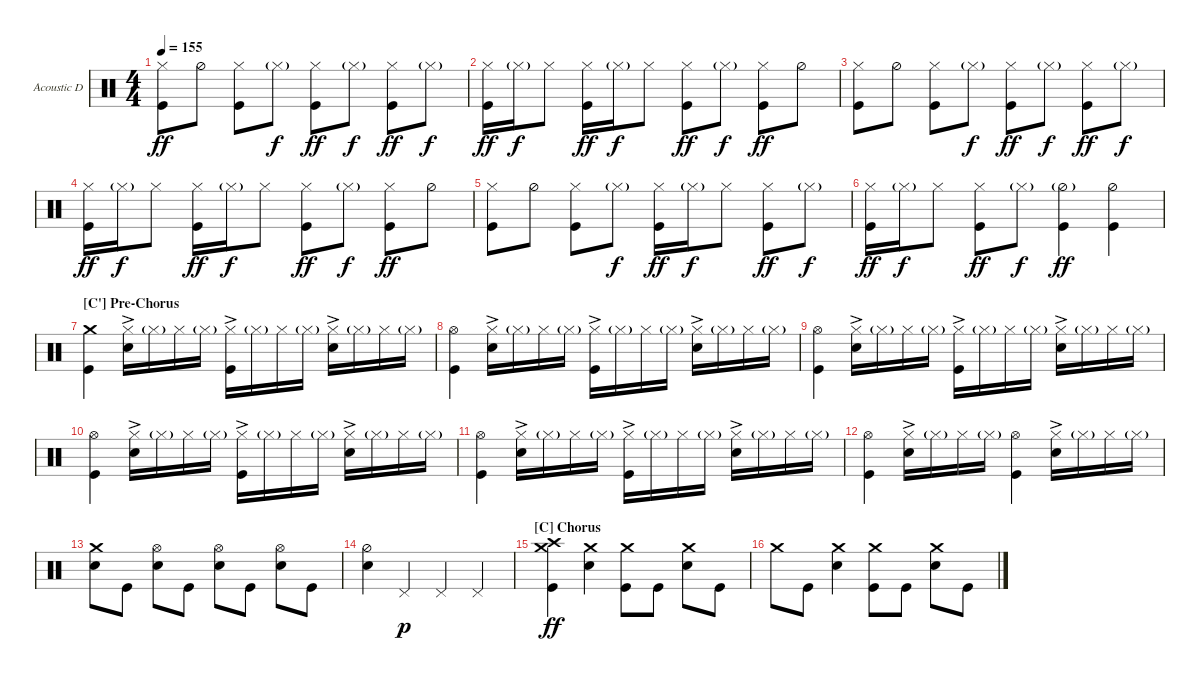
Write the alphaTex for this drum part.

\defaultSystemsLayout 4
\bracketExtendMode groupsimilarinstruments
\firstSystemTrackNameOrientation horizontal
\otherSystemsTrackNameOrientation horizontal
\track ("Acoustic Drums" "Acoustic D") {instrument percussion}
\staff {score}
\articulation defaults
\ts (4 4)
\tempo 155
\clef neutral
\ks c
("Kick (hit)" "Hi-Hat (closed)").8{dy ff} "Hi-Hat (half)".8 ("Kick (hit)" "Hi-Hat (closed)").8 "Hi-Hat (closed)"{g}.8{dy f} ("Kick (hit)" "Hi-Hat (closed)").8{dy ff} "Hi-Hat (closed)"{g}.8{dy f} ("Kick (hit)" "Hi-Hat (closed)").8{dy ff} "Hi-Hat (closed)"{g}.8{dy f} |
("Kick (hit)" "Hi-Hat (closed)").16{dy ff} "Hi-Hat (closed)"{g}.16{dy f} "Hi-Hat (closed)".8 ("Kick (hit)" "Hi-Hat (closed)").16{dy ff} "Hi-Hat (closed)"{g}.16{dy f} "Hi-Hat (closed)".8 ("Kick (hit)" "Hi-Hat (closed)").8{dy ff} "Hi-Hat (closed)"{g}.8{dy f} ("Kick (hit)" "Hi-Hat (closed)").8{dy ff} "Hi-Hat (half)".8 |
("Kick (hit)" "Hi-Hat (closed)").8 "Hi-Hat (half)".8 ("Kick (hit)" "Hi-Hat (closed)").8 "Hi-Hat (closed)"{g}.8{dy f} ("Kick (hit)" "Hi-Hat (closed)").8{dy ff} "Hi-Hat (closed)"{g}.8{dy f} ("Kick (hit)" "Hi-Hat (closed)").8{dy ff} "Hi-Hat (closed)"{g}.8{dy f} |
("Kick (hit)" "Hi-Hat (closed)").16{dy ff} "Hi-Hat (closed)"{g}.16{dy f} "Hi-Hat (closed)".8 ("Kick (hit)" "Hi-Hat (closed)").16{dy ff} "Hi-Hat (closed)"{g}.16{dy f} "Hi-Hat (closed)".8 ("Kick (hit)" "Hi-Hat (closed)").8{dy ff} "Hi-Hat (closed)"{g}.8{dy f} ("Kick (hit)" "Hi-Hat (closed)").8{dy ff} "Hi-Hat (half)".8 |
("Kick (hit)" "Hi-Hat (closed)").8 "Hi-Hat (half)".8 ("Kick (hit)" "Hi-Hat (closed)").8 "Hi-Hat (closed)"{g}.8{dy f} ("Kick (hit)" "Hi-Hat (closed)").16{dy ff} "Hi-Hat (closed)"{g}.16{dy f} "Hi-Hat (closed)".8 ("Kick (hit)" "Hi-Hat (closed)").8{dy ff} "Hi-Hat (closed)"{g}.8{dy f} |
("Kick (hit)" "Hi-Hat (closed)").16{dy ff} "Hi-Hat (closed)"{g}.16{dy f} "Hi-Hat (closed)".8 ("Kick (hit)" "Hi-Hat (closed)").8{dy ff} "Hi-Hat (closed)"{g}.8{dy f} ("Kick (hit)" "Hi-Hat (half)"{g}).4{dy ff} ("Kick (hit)" "Hi-Hat (half)").4 |
\section ("C'" "Pre-Chorus")
("Kick (hit)" "Crash medium (hit)").4 ("Snare (hit) 2" "Hi-Hat (closed)"{ac}).16 "Hi-Hat (closed)"{g}.16 "Hi-Hat (closed)".16 "Hi-Hat (closed)"{g}.16 ("Kick (hit)" "Hi-Hat (closed)"{ac}).16 "Hi-Hat (closed)"{g}.16 "Hi-Hat (closed)".16 "Hi-Hat (closed)"{g}.16 ("Snare (hit) 2" "Hi-Hat (closed)"{ac}).16 "Hi-Hat (closed)"{g}.16 "Hi-Hat (closed)".16 "Hi-Hat (closed)"{g}.16 |
("Kick (hit)" "Hi-Hat (open)").4 ("Snare (hit) 2" "Hi-Hat (closed)"{ac}).16 "Hi-Hat (closed)"{g}.16 "Hi-Hat (closed)".16 "Hi-Hat (closed)"{g}.16 ("Kick (hit)" "Hi-Hat (closed)"{ac}).16 "Hi-Hat (closed)"{g}.16 "Hi-Hat (closed)".16 "Hi-Hat (closed)"{g}.16 ("Snare (hit) 2" "Hi-Hat (closed)"{ac}).16 "Hi-Hat (closed)"{g}.16 "Hi-Hat (closed)".16 "Hi-Hat (closed)"{g}.16 |
("Kick (hit)" "Hi-Hat (open)").4 ("Snare (hit) 2" "Hi-Hat (closed)"{ac}).16 "Hi-Hat (closed)"{g}.16 "Hi-Hat (closed)".16 "Hi-Hat (closed)"{g}.16 ("Kick (hit)" "Hi-Hat (closed)"{ac}).16 "Hi-Hat (closed)"{g}.16 "Hi-Hat (closed)".16 "Hi-Hat (closed)"{g}.16 ("Snare (hit) 2" "Hi-Hat (closed)"{ac}).16 "Hi-Hat (closed)"{g}.16 "Hi-Hat (closed)".16 "Hi-Hat (closed)"{g}.16 |
("Kick (hit)" "Hi-Hat (open)").4 ("Snare (hit) 2" "Hi-Hat (closed)"{ac}).16 "Hi-Hat (closed)"{g}.16 "Hi-Hat (closed)".16 "Hi-Hat (closed)"{g}.16 ("Kick (hit)" "Hi-Hat (closed)"{ac}).16 "Hi-Hat (closed)"{g}.16 "Hi-Hat (closed)".16 "Hi-Hat (closed)"{g}.16 ("Snare (hit) 2" "Hi-Hat (closed)"{ac}).16 "Hi-Hat (closed)"{g}.16 "Hi-Hat (closed)".16 "Hi-Hat (closed)"{g}.16 |
("Kick (hit)" "Hi-Hat (open)").4 ("Snare (hit) 2" "Hi-Hat (closed)"{ac}).16 "Hi-Hat (closed)"{g}.16 "Hi-Hat (closed)".16 "Hi-Hat (closed)"{g}.16 ("Kick (hit)" "Hi-Hat (closed)"{ac}).16 "Hi-Hat (closed)"{g}.16 "Hi-Hat (closed)".16 "Hi-Hat (closed)"{g}.16 ("Snare (hit) 2" "Hi-Hat (closed)"{ac}).16 "Hi-Hat (closed)"{g}.16 "Hi-Hat (closed)".16 "Hi-Hat (closed)"{g}.16 |
("Kick (hit)" "Hi-Hat (open)").4 ("Snare (hit) 2" "Hi-Hat (closed)"{ac}).16 "Hi-Hat (closed)"{g}.16 "Hi-Hat (closed)".16 "Hi-Hat (closed)"{g}.16 ("Kick (hit)" "Hi-Hat (open)").4 ("Snare (hit) 2" "Hi-Hat (closed)"{ac}).16 "Hi-Hat (closed)"{g}.16 "Hi-Hat (closed)".16 "Hi-Hat (closed)"{g}.16 |
("Snare (hit) 2" "Crash medium (hit)").8 "Kick (hit)".8 ("Hi-Hat (open)" "Snare (hit) 2").8 "Kick (hit)".8 ("Hi-Hat (open)" "Snare (hit) 2").8 "Kick (hit)".8 ("Hi-Hat (open)" "Snare (hit) 2").8 "Kick (hit)".8 |
("Hi-Hat (half)" "Snare (hit) 2").4 "Pedal Hi-Hat (hit)".4{dy p} "Pedal Hi-Hat (hit)".4 "Pedal Hi-Hat (hit)".4 |
\section ("C" "Chorus")
("Crash high (hit)" "Crash medium (hit)" "Kick (hit)").4{dy ff} ("Crash medium (hit)" "Snare (hit) 2").4 ("Crash medium (hit)" "Kick (hit)").8 "Kick (hit)".8 ("Crash medium (hit)" "Snare (hit) 2").8 "Kick (hit)".8 |
"Crash medium (hit)".8 "Kick (hit)".8 ("Crash medium (hit)" "Snare (hit) 2").4 ("Crash medium (hit)" "Kick (hit)").8 "Kick (hit)".8 ("Crash medium (hit)" "Snare (hit) 2").8 "Kick (hit)".8
